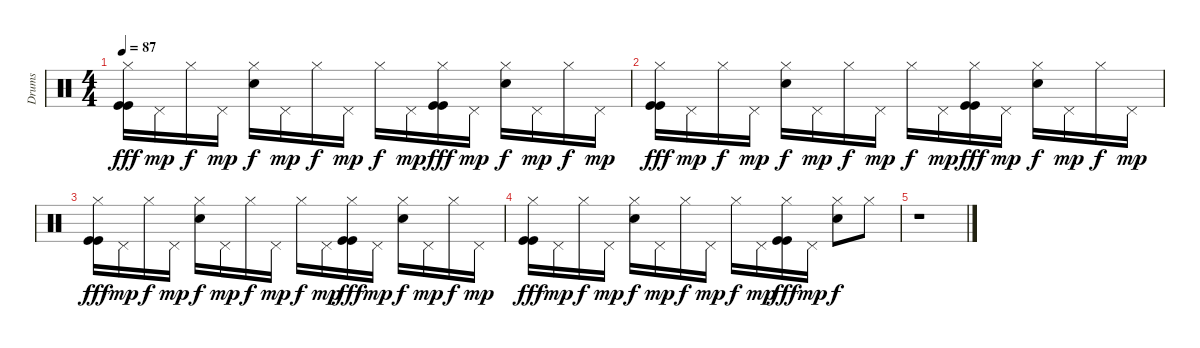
\track ("Drums" "Drums") {instrument percussion}
\staff {score}
\articulation defaults
\ts (4 4)
\tempo 87
\clef neutral
\ks c
("Hi-Hat (closed)" "Kick (hit)" "Kick (hit)").16{dy fff} "Pedal Hi-Hat (hit)".16{dy mp} "Hi-Hat (closed)".16{dy f} "Pedal Hi-Hat (hit)".16{dy mp} ("Hi-Hat (closed)" "Electric Snare (hit)").16{dy f} "Pedal Hi-Hat (hit)".16{dy mp} "Hi-Hat (closed)".16{dy f} "Pedal Hi-Hat (hit)".16{dy mp} "Hi-Hat (closed)".16{dy f} "Pedal Hi-Hat (hit)".16{dy mp} ("Hi-Hat (closed)" "Kick (hit)" "Kick (hit)").16{dy fff} "Pedal Hi-Hat (hit)".16{dy mp} ("Hi-Hat (closed)" "Electric Snare (hit)").16{dy f} "Pedal Hi-Hat (hit)".16{dy mp} "Hi-Hat (closed)".16{dy f} "Pedal Hi-Hat (hit)".16{dy mp} |
("Hi-Hat (closed)" "Kick (hit)" "Kick (hit)").16{dy fff} "Pedal Hi-Hat (hit)".16{dy mp} "Hi-Hat (closed)".16{dy f} "Pedal Hi-Hat (hit)".16{dy mp} ("Hi-Hat (closed)" "Electric Snare (hit)").16{dy f} "Pedal Hi-Hat (hit)".16{dy mp} "Hi-Hat (closed)".16{dy f} "Pedal Hi-Hat (hit)".16{dy mp} "Hi-Hat (closed)".16{dy f} "Pedal Hi-Hat (hit)".16{dy mp} ("Hi-Hat (closed)" "Kick (hit)" "Kick (hit)").16{dy fff} "Pedal Hi-Hat (hit)".16{dy mp} ("Hi-Hat (closed)" "Electric Snare (hit)").16{dy f} "Pedal Hi-Hat (hit)".16{dy mp} "Hi-Hat (closed)".16{dy f} "Pedal Hi-Hat (hit)".16{dy mp} |
("Hi-Hat (closed)" "Kick (hit)" "Kick (hit)").16{dy fff} "Pedal Hi-Hat (hit)".16{dy mp} "Hi-Hat (closed)".16{dy f} "Pedal Hi-Hat (hit)".16{dy mp} ("Hi-Hat (closed)" "Electric Snare (hit)").16{dy f} "Pedal Hi-Hat (hit)".16{dy mp} "Hi-Hat (closed)".16{dy f} "Pedal Hi-Hat (hit)".16{dy mp} "Hi-Hat (closed)".16{dy f} "Pedal Hi-Hat (hit)".16{dy mp} ("Hi-Hat (closed)" "Kick (hit)" "Kick (hit)").16{dy fff} "Pedal Hi-Hat (hit)".16{dy mp} ("Hi-Hat (closed)" "Electric Snare (hit)").16{dy f} "Pedal Hi-Hat (hit)".16{dy mp} "Hi-Hat (closed)".16{dy f} "Pedal Hi-Hat (hit)".16{dy mp} |
("Hi-Hat (closed)" "Kick (hit)" "Kick (hit)").16{dy fff} "Pedal Hi-Hat (hit)".16{dy mp} "Hi-Hat (closed)".16{dy f} "Pedal Hi-Hat (hit)".16{dy mp} ("Hi-Hat (closed)" "Electric Snare (hit)").16{dy f} "Pedal Hi-Hat (hit)".16{dy mp} "Hi-Hat (closed)".16{dy f} "Pedal Hi-Hat (hit)".16{dy mp} "Hi-Hat (closed)".16{dy f} "Pedal Hi-Hat (hit)".16{dy mp} ("Hi-Hat (closed)" "Kick (hit)" "Kick (hit)").16{dy fff} "Pedal Hi-Hat (hit)".16{dy mp} ("Hi-Hat (closed)" "Electric Snare (hit)").8{dy f} "Hi-Hat (closed)".8 |
r.1
